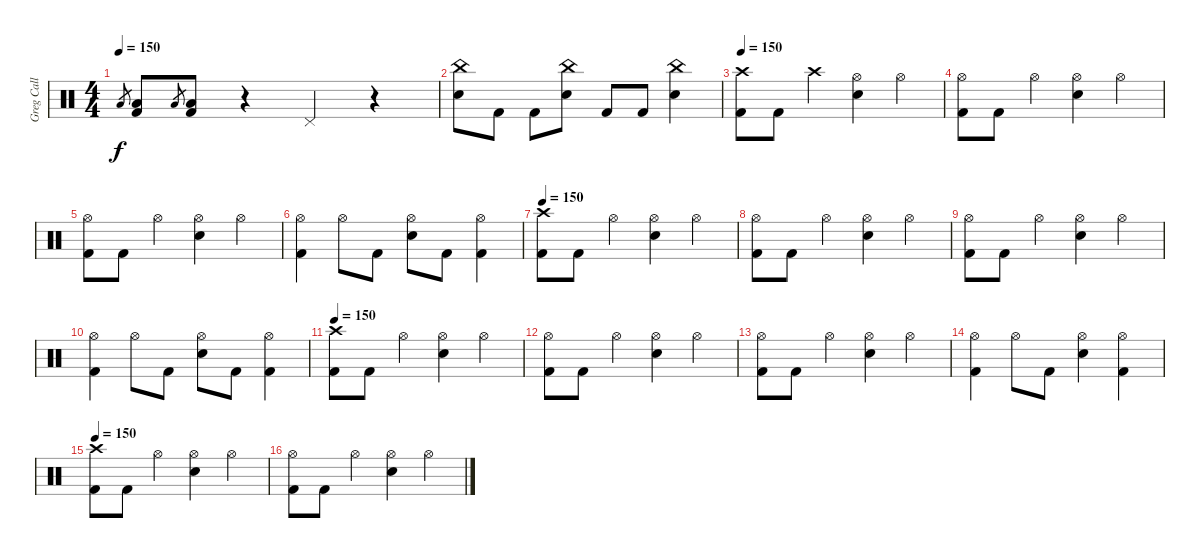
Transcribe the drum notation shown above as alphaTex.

\track ("Greg Call (Drums)" "Greg Call ") {instrument percussion}
\staff {score}
\articulation defaults
\ts (4 4)
\tempo 150
\clef neutral
\ks c "Low Floor Tom (hit)".8{gr dy f}
("Low Floor Tom (hit)" "Kick (hit) 2").8{volume 16} "Low Floor Tom (hit)".8{gr} ("Low Floor Tom (hit)" "Kick (hit) 2").8 r.4 "Pedal Hi-Hat (hit)".4 r.4 |
("China (hit)" "Snare (hit) 2").8 "Kick (hit) 2".8 "Kick (hit) 2".8 ("China (hit)" "Snare (hit) 2").8 "Kick (hit) 2".8 "Kick (hit) 2".8 ("China (hit)" "Snare (hit) 2").4 |
\tempo 150
("Crash high (hit)" "Kick (hit) 2").8 "Kick (hit) 2".8 "Crash high (hit)".4 ("Hi-Hat (open)" "Snare (hit) 2").4 "Hi-Hat (open)".4 |
("Hi-Hat (open)" "Kick (hit) 2").8 "Kick (hit) 2".8 "Hi-Hat (open)".4 ("Hi-Hat (open)" "Snare (hit) 2").4 "Hi-Hat (open)".4 |
("Hi-Hat (open)" "Kick (hit) 2").8 "Kick (hit) 2".8 "Hi-Hat (open)".4 ("Hi-Hat (open)" "Snare (hit) 2").4 "Hi-Hat (open)".4 |
("Hi-Hat (open)" "Kick (hit) 2").4 "Hi-Hat (open)".8 "Kick (hit) 2".8 ("Hi-Hat (open)" "Snare (hit) 2").8 "Kick (hit) 2".8 ("Hi-Hat (open)" "Kick (hit) 2").4 |
\tempo 150
("Crash high (hit)" "Kick (hit) 2").8 "Kick (hit) 2".8 "Hi-Hat (open)".4 ("Hi-Hat (open)" "Snare (hit) 2").4 "Hi-Hat (open)".4 |
("Hi-Hat (open)" "Kick (hit) 2").8 "Kick (hit) 2".8 "Hi-Hat (open)".4 ("Hi-Hat (open)" "Snare (hit) 2").4 "Hi-Hat (open)".4 |
("Hi-Hat (open)" "Kick (hit) 2").8 "Kick (hit) 2".8 "Hi-Hat (open)".4 ("Hi-Hat (open)" "Snare (hit) 2").4 "Hi-Hat (open)".4 |
("Hi-Hat (open)" "Kick (hit) 2").4 "Hi-Hat (open)".8 "Kick (hit) 2".8 ("Hi-Hat (open)" "Snare (hit) 2").8 "Kick (hit) 2".8 ("Hi-Hat (open)" "Kick (hit) 2").4 |
\tempo 150
("Crash high (hit)" "Kick (hit) 2").8 "Kick (hit) 2".8 "Hi-Hat (open)".4 ("Hi-Hat (open)" "Snare (hit) 2").4 "Hi-Hat (open)".4 |
("Hi-Hat (open)" "Kick (hit) 2").8 "Kick (hit) 2".8 "Hi-Hat (open)".4 ("Hi-Hat (open)" "Snare (hit) 2").4 "Hi-Hat (open)".4 |
("Hi-Hat (open)" "Kick (hit) 2").8 "Kick (hit) 2".8 "Hi-Hat (open)".4 ("Hi-Hat (open)" "Snare (hit) 2").4 "Hi-Hat (open)".4 |
("Hi-Hat (open)" "Kick (hit) 2").4 "Hi-Hat (open)".8 "Kick (hit) 2".8 ("Hi-Hat (open)" "Snare (hit) 2").4 ("Hi-Hat (open)" "Kick (hit) 2").4 |
\tempo 150
("Crash high (hit)" "Kick (hit) 2").8 "Kick (hit) 2".8 "Hi-Hat (open)".4 ("Hi-Hat (open)" "Snare (hit) 2").4 "Hi-Hat (open)".4 |
("Hi-Hat (open)" "Kick (hit) 2").8 "Kick (hit) 2".8 "Hi-Hat (open)".4 ("Hi-Hat (open)" "Snare (hit) 2").4 "Hi-Hat (open)".4
